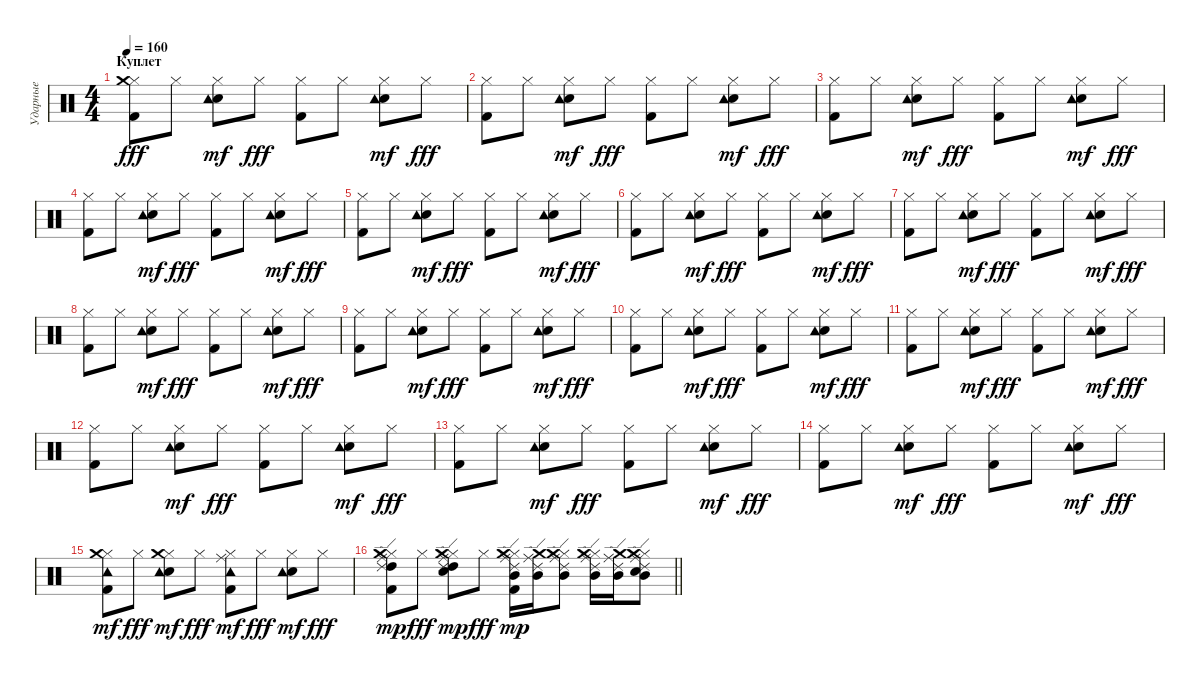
\track ("Ударные" "Ударные") {instrument percussion}
\staff {score}
\articulation defaults
\ts (4 4)
\section ("" "Куплет")
\tempo 160
\clef neutral
\ks c
("Hi-Hat (closed)" "Kick (hit) 2" "Crash medium (hit)").8{dy fff} "Hi-Hat (closed)".8 ("Hi-Hat (closed)" "Snare (hit) 2" "Tambourine (hit)").8{dy mf} "Hi-Hat (closed)".8{dy fff} ("Hi-Hat (closed)" "Kick (hit) 2").8 "Hi-Hat (closed)".8 ("Hi-Hat (closed)" "Snare (hit) 2" "Tambourine (hit)").8{dy mf} "Hi-Hat (closed)".8{dy fff} |
("Hi-Hat (closed)" "Kick (hit) 2").8 "Hi-Hat (closed)".8 ("Hi-Hat (closed)" "Snare (hit) 2" "Tambourine (hit)").8{dy mf} "Hi-Hat (closed)".8{dy fff} ("Hi-Hat (closed)" "Kick (hit) 2").8 "Hi-Hat (closed)".8 ("Hi-Hat (closed)" "Snare (hit) 2" "Tambourine (hit)").8{dy mf} "Hi-Hat (closed)".8{dy fff} |
("Hi-Hat (closed)" "Kick (hit) 2").8 "Hi-Hat (closed)".8 ("Hi-Hat (closed)" "Snare (hit) 2" "Tambourine (hit)").8{dy mf} "Hi-Hat (closed)".8{dy fff} ("Hi-Hat (closed)" "Kick (hit) 2").8 "Hi-Hat (closed)".8 ("Hi-Hat (closed)" "Snare (hit) 2" "Tambourine (hit)").8{dy mf} "Hi-Hat (closed)".8{dy fff} |
("Hi-Hat (closed)" "Kick (hit) 2").8 "Hi-Hat (closed)".8 ("Hi-Hat (closed)" "Snare (hit) 2" "Tambourine (hit)").8{dy mf} "Hi-Hat (closed)".8{dy fff} ("Hi-Hat (closed)" "Kick (hit) 2").8 "Hi-Hat (closed)".8 ("Hi-Hat (closed)" "Snare (hit) 2" "Tambourine (hit)").8{dy mf} "Hi-Hat (closed)".8{dy fff} |
("Hi-Hat (closed)" "Kick (hit) 2").8 "Hi-Hat (closed)".8 ("Hi-Hat (closed)" "Snare (hit) 2" "Tambourine (hit)").8{dy mf} "Hi-Hat (closed)".8{dy fff} ("Hi-Hat (closed)" "Kick (hit) 2").8 "Hi-Hat (closed)".8 ("Hi-Hat (closed)" "Snare (hit) 2" "Tambourine (hit)").8{dy mf} "Hi-Hat (closed)".8{dy fff} |
("Hi-Hat (closed)" "Kick (hit) 2").8 "Hi-Hat (closed)".8 ("Hi-Hat (closed)" "Snare (hit) 2" "Tambourine (hit)").8{dy mf} "Hi-Hat (closed)".8{dy fff} ("Hi-Hat (closed)" "Kick (hit) 2").8 "Hi-Hat (closed)".8 ("Hi-Hat (closed)" "Snare (hit) 2" "Tambourine (hit)").8{dy mf} "Hi-Hat (closed)".8{dy fff} |
("Hi-Hat (closed)" "Kick (hit) 2").8 "Hi-Hat (closed)".8 ("Hi-Hat (closed)" "Snare (hit) 2" "Tambourine (hit)").8{dy mf} "Hi-Hat (closed)".8{dy fff} ("Hi-Hat (closed)" "Kick (hit) 2").8 "Hi-Hat (closed)".8 ("Hi-Hat (closed)" "Snare (hit) 2" "Tambourine (hit)").8{dy mf} "Hi-Hat (closed)".8{dy fff} |
("Hi-Hat (closed)" "Kick (hit) 2").8 "Hi-Hat (closed)".8 ("Hi-Hat (closed)" "Snare (hit) 2" "Tambourine (hit)").8{dy mf} "Hi-Hat (closed)".8{dy fff} ("Hi-Hat (closed)" "Kick (hit) 2").8 "Hi-Hat (closed)".8 ("Hi-Hat (closed)" "Snare (hit) 2" "Tambourine (hit)").8{dy mf} "Hi-Hat (closed)".8{dy fff} |
("Hi-Hat (closed)" "Kick (hit) 2").8 "Hi-Hat (closed)".8 ("Hi-Hat (closed)" "Snare (hit) 2" "Tambourine (hit)").8{dy mf} "Hi-Hat (closed)".8{dy fff} ("Hi-Hat (closed)" "Kick (hit) 2").8 "Hi-Hat (closed)".8 ("Hi-Hat (closed)" "Snare (hit) 2" "Tambourine (hit)").8{dy mf} "Hi-Hat (closed)".8{dy fff} |
("Hi-Hat (closed)" "Kick (hit) 2").8 "Hi-Hat (closed)".8 ("Hi-Hat (closed)" "Snare (hit) 2" "Tambourine (hit)").8{dy mf} "Hi-Hat (closed)".8{dy fff} ("Hi-Hat (closed)" "Kick (hit) 2").8 "Hi-Hat (closed)".8 ("Hi-Hat (closed)" "Snare (hit) 2" "Tambourine (hit)").8{dy mf} "Hi-Hat (closed)".8{dy fff} |
("Hi-Hat (closed)" "Kick (hit) 2").8 "Hi-Hat (closed)".8 ("Hi-Hat (closed)" "Snare (hit) 2" "Tambourine (hit)").8{dy mf} "Hi-Hat (closed)".8{dy fff} ("Hi-Hat (closed)" "Kick (hit) 2").8 "Hi-Hat (closed)".8 ("Hi-Hat (closed)" "Snare (hit) 2" "Tambourine (hit)").8{dy mf} "Hi-Hat (closed)".8{dy fff} |
("Hi-Hat (closed)" "Kick (hit) 2").8 "Hi-Hat (closed)".8 ("Hi-Hat (closed)" "Snare (hit) 2" "Tambourine (hit)").8{dy mf} "Hi-Hat (closed)".8{dy fff} ("Hi-Hat (closed)" "Kick (hit) 2").8 "Hi-Hat (closed)".8 ("Hi-Hat (closed)" "Snare (hit) 2" "Tambourine (hit)").8{dy mf} "Hi-Hat (closed)".8{dy fff} |
("Hi-Hat (closed)" "Kick (hit) 2").8 "Hi-Hat (closed)".8 ("Hi-Hat (closed)" "Snare (hit) 2" "Tambourine (hit)").8{dy mf} "Hi-Hat (closed)".8{dy fff} ("Hi-Hat (closed)" "Kick (hit) 2").8 "Hi-Hat (closed)".8 ("Hi-Hat (closed)" "Snare (hit) 2" "Tambourine (hit)").8{dy mf} "Hi-Hat (closed)".8{dy fff} |
("Hi-Hat (closed)" "Kick (hit) 2").8 "Hi-Hat (closed)".8 ("Hi-Hat (closed)" "Snare (hit) 2" "Tambourine (hit)").8{dy mf} "Hi-Hat (closed)".8{dy fff} ("Hi-Hat (closed)" "Kick (hit) 2").8 "Hi-Hat (closed)".8 ("Hi-Hat (closed)" "Snare (hit) 2" "Tambourine (hit)").8{dy mf} "Hi-Hat (closed)".8{dy fff} |
("Hi-Hat (closed)" "Kick (hit) 2" "Crash medium (hit)" "Tambourine (hit)").8{dy mf} "Hi-Hat (closed)".8{dy fff} ("Hi-Hat (closed)" "Snare (hit) 2" "Crash medium (hit)" "Tambourine (hit)").8{dy mf} "Hi-Hat (closed)".8{dy fff} ("Hi-Hat (closed)" "Kick (hit) 2" "Ride (middle)" "Tambourine (hit)").8{dy mf} "Hi-Hat (closed)".8{dy fff} ("Hi-Hat (closed)" "Snare (hit) 2" "Tambourine (hit)").8{dy mf} "Hi-Hat (closed)".8{dy fff} |
\barLineRight lightlight
("Hi-Hat (closed)" "Kick (hit) 2" "High Tom (hit)" "Ride (middle)" "Ride (edge) 2" "Crash medium (hit)").8{dy mp} "Hi-Hat (closed)".8{dy fff} ("Hi-Hat (closed)" "Snare (hit) 2" "High Tom (hit)" "Ride (middle)" "Ride (edge) 2" "Crash medium (hit)").8{dy mp} "Hi-Hat (closed)".8{dy fff} ("Hi-Hat (closed)" "Kick (hit) 2" "Mid Tom (hit)" "Ride (middle)" "Ride (edge) 2" "Crash medium (hit)").16{dy mp} ("Mid Tom (hit)" "Ride (middle)" "Ride (edge) 2" "Crash medium (hit)").16 ("Hi-Hat (closed)" "Mid Tom (hit)" "Ride (middle)" "Ride (edge) 2" "Crash medium (hit)").8 ("Hi-Hat (closed)" "Mid Tom (hit)" "Ride (middle)" "Ride (edge) 2" "Crash medium (hit)").16 ("Mid Tom (hit)" "Ride (middle)" "Ride (edge) 2" "Crash medium (hit)").16 ("Hi-Hat (closed)" "Snare (hit) 2" "Mid Tom (hit)" "Ride (middle)" "Ride (edge) 2" "Crash medium (hit)").8
